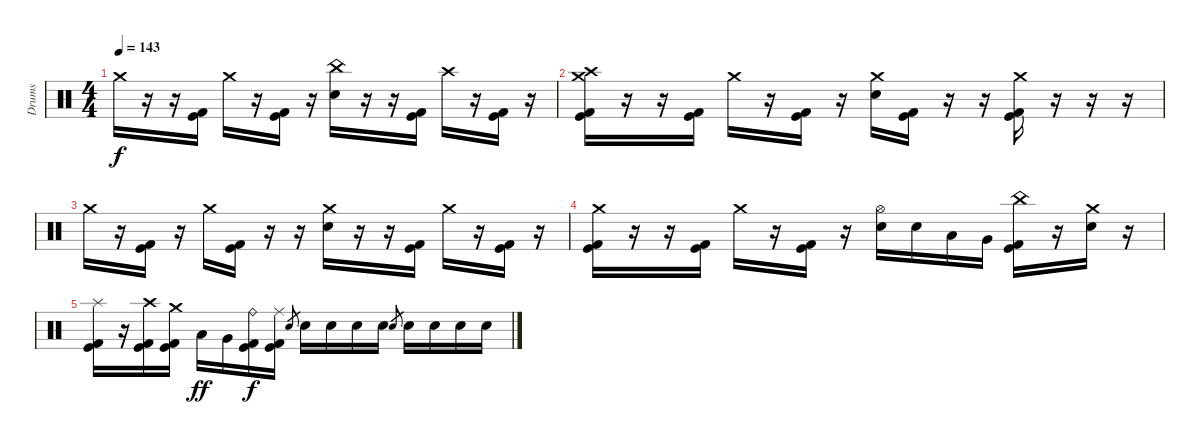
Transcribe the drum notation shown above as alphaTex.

\track ("Drums" "Drums") {instrument percussion}
\staff {score}
\articulation defaults
\ts (4 4)
\tempo 143
\clef neutral
\ks c "Crash medium (hit)".16{dy f}
r.16 r.16 ("Kick (hit)" "Kick (hit) 2").16 "Crash medium (hit)".16 r.16 ("Kick (hit)" "Kick (hit) 2").16 r.16 ("China (hit)" "Electric Snare (hit)").16 r.16 r.16 ("Kick (hit)" "Kick (hit) 2").16 "Crash high (hit)".16 r.16 ("Kick (hit)" "Kick (hit) 2").16 r.16 |
("Crash medium (hit)" "Crash high (hit)" "Kick (hit)" "Kick (hit) 2").16{volume 0} r.16 r.16 ("Kick (hit)" "Kick (hit) 2").16 "Crash medium (hit)".16 r.16 ("Kick (hit)" "Kick (hit) 2").16 r.16 ("Crash medium (hit)" "Electric Snare (hit)").16 ("Kick (hit)" "Kick (hit) 2").16 r.16 r.16 ("Crash medium (hit)" "Kick (hit)" "Kick (hit) 2").16 r.16 r.16 r.16 |
"Crash medium (hit)".16 r.16 ("Kick (hit)" "Kick (hit) 2").16 r.16 "Crash medium (hit)".16 ("Kick (hit)" "Kick (hit) 2").16 r.16 r.16 ("Crash medium (hit)" "Electric Snare (hit)").16 r.16 r.16 ("Kick (hit)" "Kick (hit) 2").16 "Crash medium (hit)".16 r.16 ("Kick (hit)" "Kick (hit) 2").16 r.16 |
("Crash medium (hit)" "Kick (hit)" "Kick (hit) 2").16 r.16 r.16 ("Kick (hit)" "Kick (hit) 2").16 "Crash medium (hit)".16 r.16 ("Kick (hit)" "Kick (hit) 2").16 r.16 ("Hi-Hat (open)" "Electric Snare (hit)").16 "Electric Snare (hit)".16 "Low Tom (hit)".16 "Very Low Tom (hit)".16 ("China (hit)" "Kick (hit)" "Kick (hit) 2").16 r.16 ("Crash medium (hit)" "Electric Snare (hit)").16 r.16 |
("Splash (hit)" "Kick (hit)" "Kick (hit) 2").16 r.16 ("Crash high (hit)" "Kick (hit)" "Kick (hit) 2").16 ("Crash medium (hit)" "Kick (hit)" "Kick (hit) 2").16 "Low Tom (hit)".16{dy ff} "Very Low Tom (hit)".16 ("Ride (bell)" "Kick (hit)" "Kick (hit) 2").16{dy f} ("Ride (middle)" "Kick (hit)" "Kick (hit) 2").16 "Electric Snare (hit)".8{gr} "Electric Snare (hit)".16 "Electric Snare (hit)".16 "Electric Snare (hit)".16 "Electric Snare (hit)".16 "Electric Snare (hit)".8{gr} "Electric Snare (hit)".16 "Electric Snare (hit)".16 "Electric Snare (hit)".16 "Electric Snare (hit)".16
